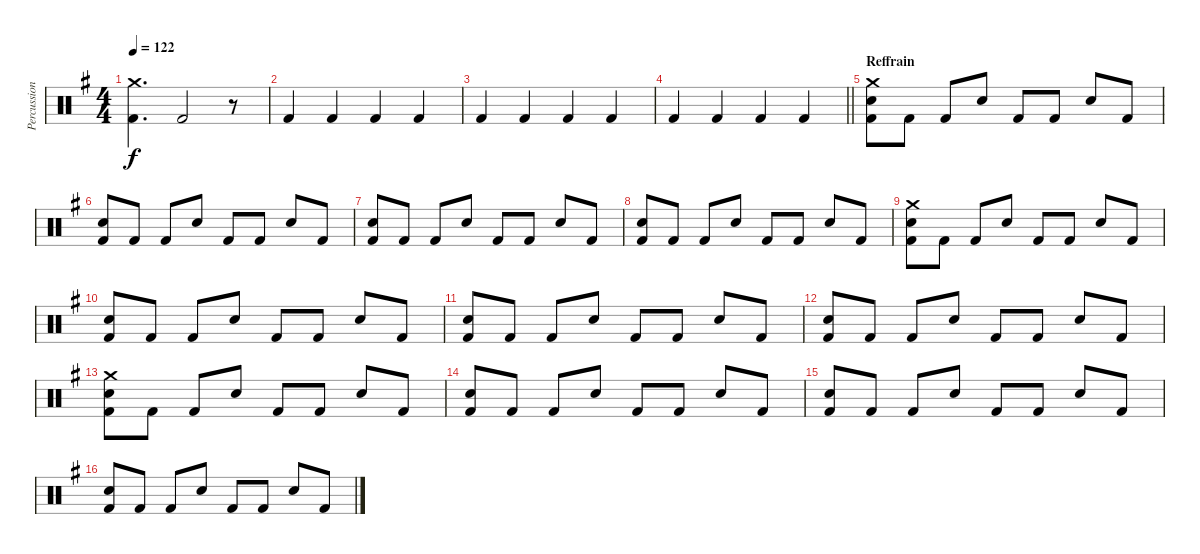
\track ("Percussion" "Percussion") {instrument percussion}
\staff {score}
\articulation defaults
\ts (4 4)
\tempo 122
\clef neutral
\ks g
("Crash medium (hit)" "Kick (hit) 2").4{d dy f} "Kick (hit) 2".2 r.8 |
"Kick (hit) 2".4 "Kick (hit) 2".4 "Kick (hit) 2".4 "Kick (hit) 2".4 |
"Kick (hit) 2".4 "Kick (hit) 2".4 "Kick (hit) 2".4 "Kick (hit) 2".4 |
\barLineRight lightlight "Kick (hit) 2".4 "Kick (hit) 2".4 "Kick (hit) 2".4 "Kick (hit) 2".4
|
\section ("" "Reffrain")
("Crash medium (hit)" "Snare (hit) 2" "Kick (hit) 2").8 "Kick (hit) 2".8 "Kick (hit) 2".8 "Snare (hit) 2".8 "Kick (hit) 2".8 "Kick (hit) 2".8 "Snare (hit) 2".8 "Kick (hit) 2".8 |
("Snare (hit) 2" "Kick (hit) 2").8 "Kick (hit) 2".8 "Kick (hit) 2".8 "Snare (hit) 2".8 "Kick (hit) 2".8 "Kick (hit) 2".8 "Snare (hit) 2".8 "Kick (hit) 2".8 |
("Snare (hit) 2" "Kick (hit) 2").8 "Kick (hit) 2".8 "Kick (hit) 2".8 "Snare (hit) 2".8 "Kick (hit) 2".8 "Kick (hit) 2".8 "Snare (hit) 2".8 "Kick (hit) 2".8 |
("Snare (hit) 2" "Kick (hit) 2").8 "Kick (hit) 2".8 "Kick (hit) 2".8 "Snare (hit) 2".8 "Kick (hit) 2".8 "Kick (hit) 2".8 "Snare (hit) 2".8 "Kick (hit) 2".8 |
("Crash medium (hit)" "Snare (hit) 2" "Kick (hit) 2").8 "Kick (hit) 2".8 "Kick (hit) 2".8 "Snare (hit) 2".8 "Kick (hit) 2".8 "Kick (hit) 2".8 "Snare (hit) 2".8 "Kick (hit) 2".8 |
("Snare (hit) 2" "Kick (hit) 2").8 "Kick (hit) 2".8 "Kick (hit) 2".8 "Snare (hit) 2".8 "Kick (hit) 2".8 "Kick (hit) 2".8 "Snare (hit) 2".8 "Kick (hit) 2".8 |
("Snare (hit) 2" "Kick (hit) 2").8 "Kick (hit) 2".8 "Kick (hit) 2".8 "Snare (hit) 2".8 "Kick (hit) 2".8 "Kick (hit) 2".8 "Snare (hit) 2".8 "Kick (hit) 2".8 |
("Snare (hit) 2" "Kick (hit) 2").8 "Kick (hit) 2".8 "Kick (hit) 2".8 "Snare (hit) 2".8 "Kick (hit) 2".8 "Kick (hit) 2".8 "Snare (hit) 2".8 "Kick (hit) 2".8 |
("Crash medium (hit)" "Snare (hit) 2" "Kick (hit) 2").8 "Kick (hit) 2".8 "Kick (hit) 2".8 "Snare (hit) 2".8 "Kick (hit) 2".8 "Kick (hit) 2".8 "Snare (hit) 2".8 "Kick (hit) 2".8 |
("Snare (hit) 2" "Kick (hit) 2").8 "Kick (hit) 2".8 "Kick (hit) 2".8 "Snare (hit) 2".8 "Kick (hit) 2".8 "Kick (hit) 2".8 "Snare (hit) 2".8 "Kick (hit) 2".8 |
("Snare (hit) 2" "Kick (hit) 2").8 "Kick (hit) 2".8 "Kick (hit) 2".8 "Snare (hit) 2".8 "Kick (hit) 2".8 "Kick (hit) 2".8 "Snare (hit) 2".8 "Kick (hit) 2".8 |
("Snare (hit) 2" "Kick (hit) 2").8 "Kick (hit) 2".8 "Kick (hit) 2".8 "Snare (hit) 2".8 "Kick (hit) 2".8 "Kick (hit) 2".8 "Snare (hit) 2".8 "Kick (hit) 2".8
